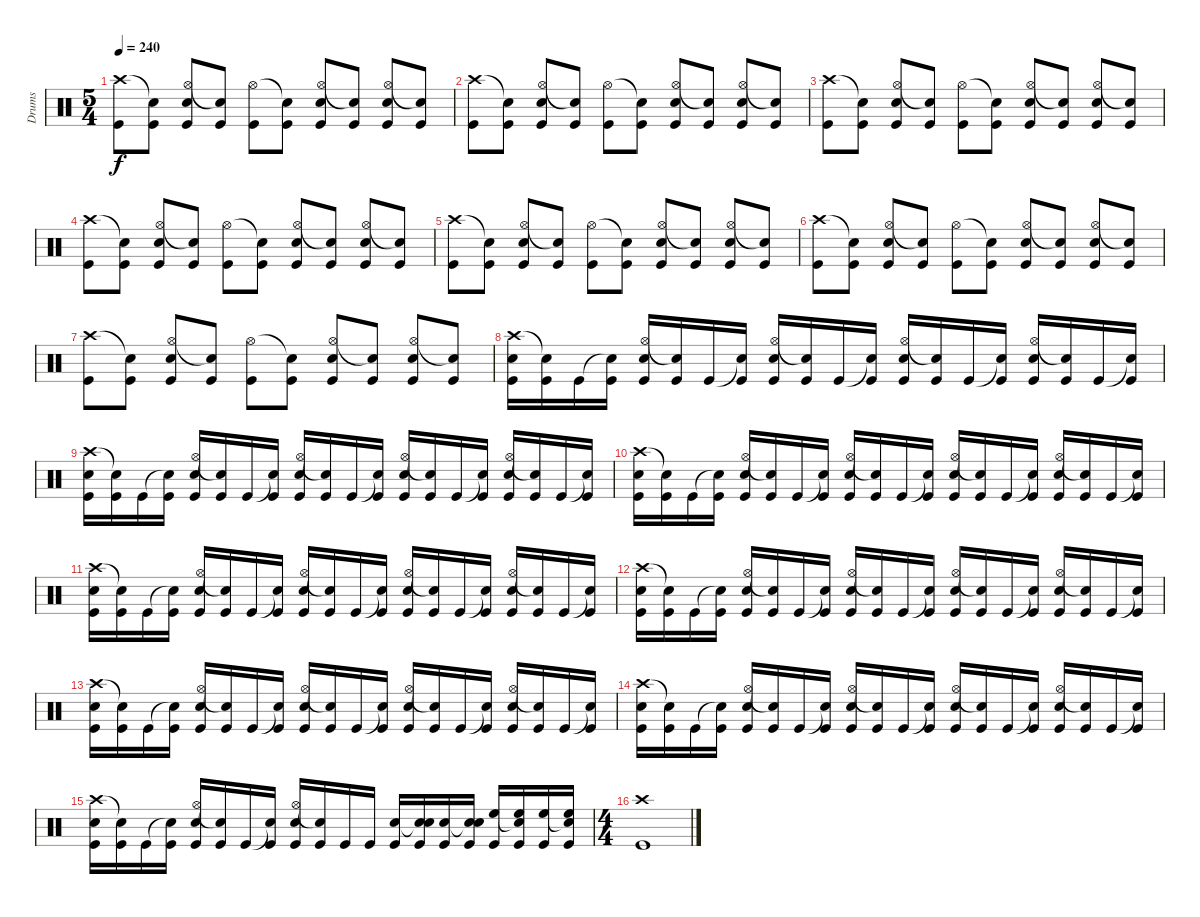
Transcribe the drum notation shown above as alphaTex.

\track ("Drums " "Drums ") {instrument percussion}
\staff {score}
\articulation defaults
\ts (5 4)
\tempo 240
\clef neutral
\ks c
("Crash high (hit)" "Kick (hit)").8{dy f} ("Snare (hit)"{t} "Kick (hit)").8 ("Hi-Hat (open)" "Electric Snare (hit)" "Kick (hit)").8 ("Snare (hit)"{t} "Kick (hit)").8 ("Hi-Hat (open)" "Kick (hit)").8 ("Snare (hit)"{t} "Kick (hit)").8 ("Hi-Hat (open)" "Electric Snare (hit)" "Kick (hit)").8 ("Snare (hit)"{t} "Kick (hit)").8 ("Hi-Hat (open)" "Electric Snare (hit)" "Kick (hit)").8 ("Snare (hit)"{t} "Kick (hit)").8 |
("Crash high (hit)" "Kick (hit)").8 ("Snare (hit)"{t} "Kick (hit)").8 ("Hi-Hat (open)" "Electric Snare (hit)" "Kick (hit)").8 ("Snare (hit)"{t} "Kick (hit)").8 ("Hi-Hat (open)" "Kick (hit)").8 ("Snare (hit)"{t} "Kick (hit)").8 ("Hi-Hat (open)" "Electric Snare (hit)" "Kick (hit)").8 ("Snare (hit)"{t} "Kick (hit)").8 ("Hi-Hat (open)" "Electric Snare (hit)" "Kick (hit)").8 ("Snare (hit)"{t} "Kick (hit)").8 |
("Crash high (hit)" "Kick (hit)").8 ("Snare (hit)"{t} "Kick (hit)").8 ("Hi-Hat (open)" "Electric Snare (hit)" "Kick (hit)").8 ("Snare (hit)"{t} "Kick (hit)").8 ("Hi-Hat (open)" "Kick (hit)").8 ("Snare (hit)"{t} "Kick (hit)").8 ("Hi-Hat (open)" "Electric Snare (hit)" "Kick (hit)").8 ("Snare (hit)"{t} "Kick (hit)").8 ("Hi-Hat (open)" "Electric Snare (hit)" "Kick (hit)").8 ("Snare (hit)"{t} "Kick (hit)").8 |
("Crash high (hit)" "Kick (hit)").8 ("Snare (hit)"{t} "Kick (hit)").8 ("Hi-Hat (open)" "Electric Snare (hit)" "Kick (hit)").8 ("Snare (hit)"{t} "Kick (hit)").8 ("Hi-Hat (open)" "Kick (hit)").8 ("Snare (hit)"{t} "Kick (hit)").8 ("Hi-Hat (open)" "Electric Snare (hit)" "Kick (hit)").8 ("Snare (hit)"{t} "Kick (hit)").8 ("Hi-Hat (open)" "Electric Snare (hit)" "Kick (hit)").8 ("Snare (hit)"{t} "Kick (hit)").8 |
("Crash high (hit)" "Kick (hit)").8 ("Snare (hit)"{t} "Kick (hit)").8 ("Hi-Hat (open)" "Electric Snare (hit)" "Kick (hit)").8 ("Snare (hit)"{t} "Kick (hit)").8 ("Hi-Hat (open)" "Kick (hit)").8 ("Snare (hit)"{t} "Kick (hit)").8 ("Hi-Hat (open)" "Electric Snare (hit)" "Kick (hit)").8 ("Snare (hit)"{t} "Kick (hit)").8 ("Hi-Hat (open)" "Electric Snare (hit)" "Kick (hit)").8 ("Snare (hit)"{t} "Kick (hit)").8 |
("Crash high (hit)" "Kick (hit)").8 ("Snare (hit)"{t} "Kick (hit)").8 ("Hi-Hat (open)" "Electric Snare (hit)" "Kick (hit)").8 ("Snare (hit)"{t} "Kick (hit)").8 ("Hi-Hat (open)" "Kick (hit)").8 ("Snare (hit)"{t} "Kick (hit)").8 ("Hi-Hat (open)" "Electric Snare (hit)" "Kick (hit)").8 ("Snare (hit)"{t} "Kick (hit)").8 ("Hi-Hat (open)" "Electric Snare (hit)" "Kick (hit)").8 ("Snare (hit)"{t} "Kick (hit)").8 |
("Crash high (hit)" "Kick (hit)").8 ("Snare (hit)"{t} "Kick (hit)").8 ("Hi-Hat (open)" "Electric Snare (hit)" "Kick (hit)").8 ("Snare (hit)"{t} "Kick (hit)").8 ("Hi-Hat (open)" "Kick (hit)").8 ("Snare (hit)"{t} "Kick (hit)").8 ("Hi-Hat (open)" "Electric Snare (hit)" "Kick (hit)").8 ("Snare (hit)"{t} "Kick (hit)").8 ("Hi-Hat (open)" "Electric Snare (hit)" "Kick (hit)").8 ("Snare (hit)"{t} "Kick (hit)").8 |
("Crash high (hit)" "Electric Snare (hit)" "Kick (hit)").16 ("Snare (hit)"{t} "Kick (hit)").16 "Kick (hit)".16 ("Snare (hit)"{t} "Kick (hit)").16 ("Hi-Hat (open)" "Electric Snare (hit)" "Kick (hit)").16 ("Snare (hit)"{t} "Kick (hit)").16 "Kick (hit)".16 ("Snare (hit)"{t} "Kick (hit)").16 ("Hi-Hat (open)" "Electric Snare (hit)" "Kick (hit)").16 ("Snare (hit)"{t} "Kick (hit)").16 "Kick (hit)".16 ("Snare (hit)"{t} "Kick (hit)").16 ("Hi-Hat (open)" "Electric Snare (hit)" "Kick (hit)").16 ("Snare (hit)"{t} "Kick (hit)").16 "Kick (hit)".16 ("Snare (hit)"{t} "Kick (hit)").16 ("Hi-Hat (open)" "Electric Snare (hit)" "Kick (hit)").16 ("Snare (hit)"{t} "Kick (hit)").16 "Kick (hit)".16 ("Snare (hit)"{t} "Kick (hit)").16 |
("Crash high (hit)" "Electric Snare (hit)" "Kick (hit)").16 ("Snare (hit)"{t} "Kick (hit)").16 "Kick (hit)".16 ("Snare (hit)"{t} "Kick (hit)").16 ("Hi-Hat (open)" "Electric Snare (hit)" "Kick (hit)").16 ("Snare (hit)"{t} "Kick (hit)").16 "Kick (hit)".16 ("Snare (hit)"{t} "Kick (hit)").16 ("Hi-Hat (open)" "Electric Snare (hit)" "Kick (hit)").16 ("Snare (hit)"{t} "Kick (hit)").16 "Kick (hit)".16 ("Snare (hit)"{t} "Kick (hit)").16 ("Hi-Hat (open)" "Electric Snare (hit)" "Kick (hit)").16 ("Snare (hit)"{t} "Kick (hit)").16 "Kick (hit)".16 ("Snare (hit)"{t} "Kick (hit)").16 ("Hi-Hat (open)" "Electric Snare (hit)" "Kick (hit)").16 ("Snare (hit)"{t} "Kick (hit)").16 "Kick (hit)".16 ("Snare (hit)"{t} "Kick (hit)").16 |
("Crash high (hit)" "Electric Snare (hit)" "Kick (hit)").16 ("Snare (hit)"{t} "Kick (hit)").16 "Kick (hit)".16 ("Snare (hit)"{t} "Kick (hit)").16 ("Hi-Hat (open)" "Electric Snare (hit)" "Kick (hit)").16 ("Snare (hit)"{t} "Kick (hit)").16 "Kick (hit)".16 ("Snare (hit)"{t} "Kick (hit)").16 ("Hi-Hat (open)" "Electric Snare (hit)" "Kick (hit)").16 ("Snare (hit)"{t} "Kick (hit)").16 "Kick (hit)".16 ("Snare (hit)"{t} "Kick (hit)").16 ("Hi-Hat (open)" "Electric Snare (hit)" "Kick (hit)").16 ("Snare (hit)"{t} "Kick (hit)").16 "Kick (hit)".16 ("Snare (hit)"{t} "Kick (hit)").16 ("Hi-Hat (open)" "Electric Snare (hit)" "Kick (hit)").16 ("Snare (hit)"{t} "Kick (hit)").16 "Kick (hit)".16 ("Snare (hit)"{t} "Kick (hit)").16 |
("Crash high (hit)" "Electric Snare (hit)" "Kick (hit)").16 ("Snare (hit)"{t} "Kick (hit)").16 "Kick (hit)".16 ("Snare (hit)"{t} "Kick (hit)").16 ("Hi-Hat (open)" "Electric Snare (hit)" "Kick (hit)").16 ("Snare (hit)"{t} "Kick (hit)").16 "Kick (hit)".16 ("Snare (hit)"{t} "Kick (hit)").16 ("Hi-Hat (open)" "Electric Snare (hit)" "Kick (hit)").16 ("Snare (hit)"{t} "Kick (hit)").16 "Kick (hit)".16 ("Snare (hit)"{t} "Kick (hit)").16 ("Hi-Hat (open)" "Electric Snare (hit)" "Kick (hit)").16 ("Snare (hit)"{t} "Kick (hit)").16 "Kick (hit)".16 ("Snare (hit)"{t} "Kick (hit)").16 ("Hi-Hat (open)" "Electric Snare (hit)" "Kick (hit)").16 ("Snare (hit)"{t} "Kick (hit)").16 "Kick (hit)".16 ("Snare (hit)"{t} "Kick (hit)").16 |
("Crash high (hit)" "Electric Snare (hit)" "Kick (hit)").16 ("Snare (hit)"{t} "Kick (hit)").16 "Kick (hit)".16 ("Snare (hit)"{t} "Kick (hit)").16 ("Hi-Hat (open)" "Electric Snare (hit)" "Kick (hit)").16 ("Snare (hit)"{t} "Kick (hit)").16 "Kick (hit)".16 ("Snare (hit)"{t} "Kick (hit)").16 ("Hi-Hat (open)" "Electric Snare (hit)" "Kick (hit)").16 ("Snare (hit)"{t} "Kick (hit)").16 "Kick (hit)".16 ("Snare (hit)"{t} "Kick (hit)").16 ("Hi-Hat (open)" "Electric Snare (hit)" "Kick (hit)").16 ("Snare (hit)"{t} "Kick (hit)").16 "Kick (hit)".16 ("Snare (hit)"{t} "Kick (hit)").16 ("Hi-Hat (open)" "Electric Snare (hit)" "Kick (hit)").16 ("Snare (hit)"{t} "Kick (hit)").16 "Kick (hit)".16 ("Snare (hit)"{t} "Kick (hit)").16 |
("Crash high (hit)" "Electric Snare (hit)" "Kick (hit)").16 ("Snare (hit)"{t} "Kick (hit)").16 "Kick (hit)".16 ("Snare (hit)"{t} "Kick (hit)").16 ("Hi-Hat (open)" "Electric Snare (hit)" "Kick (hit)").16 ("Snare (hit)"{t} "Kick (hit)").16 "Kick (hit)".16 ("Snare (hit)"{t} "Kick (hit)").16 ("Hi-Hat (open)" "Electric Snare (hit)" "Kick (hit)").16 ("Snare (hit)"{t} "Kick (hit)").16 "Kick (hit)".16 ("Snare (hit)"{t} "Kick (hit)").16 ("Hi-Hat (open)" "Electric Snare (hit)" "Kick (hit)").16 ("Snare (hit)"{t} "Kick (hit)").16 "Kick (hit)".16 ("Snare (hit)"{t} "Kick (hit)").16 ("Hi-Hat (open)" "Electric Snare (hit)" "Kick (hit)").16 ("Snare (hit)"{t} "Kick (hit)").16 "Kick (hit)".16 ("Snare (hit)"{t} "Kick (hit)").16 |
("Crash high (hit)" "Electric Snare (hit)" "Kick (hit)").16 ("Snare (hit)"{t} "Kick (hit)").16 "Kick (hit)".16 ("Snare (hit)"{t} "Kick (hit)").16 ("Hi-Hat (open)" "Electric Snare (hit)" "Kick (hit)").16 ("Snare (hit)"{t} "Kick (hit)").16 "Kick (hit)".16 ("Snare (hit)"{t} "Kick (hit)").16 ("Hi-Hat (open)" "Electric Snare (hit)" "Kick (hit)").16 ("Snare (hit)"{t} "Kick (hit)").16 "Kick (hit)".16 ("Snare (hit)"{t} "Kick (hit)").16 ("Hi-Hat (open)" "Electric Snare (hit)" "Kick (hit)").16 ("Snare (hit)"{t} "Kick (hit)").16 "Kick (hit)".16 ("Snare (hit)"{t} "Kick (hit)").16 ("Hi-Hat (open)" "Electric Snare (hit)" "Kick (hit)").16 ("Snare (hit)"{t} "Kick (hit)").16 "Kick (hit)".16 ("Snare (hit)"{t} "Kick (hit)").16 |
("Crash high (hit)" "Electric Snare (hit)" "Kick (hit)").16 ("Snare (hit)"{t} "Kick (hit)").16 "Kick (hit)".16 ("Snare (hit)"{t} "Kick (hit)").16 ("Hi-Hat (open)" "Electric Snare (hit)" "Kick (hit)").16 ("Snare (hit)"{t} "Kick (hit)").16 "Kick (hit)".16 ("Snare (hit)"{t} "Kick (hit)").16 ("Hi-Hat (open)" "Electric Snare (hit)" "Kick (hit)").16 ("Snare (hit)"{t} "Kick (hit)").16 "Kick (hit)".16 "Kick (hit)".16 ("Electric Snare (hit)" "Kick (hit)").16 ("Snare (hit)"{t} "Electric Snare (hit)" "Kick (hit)").16 ("Electric Snare (hit)" "Kick (hit)").16 ("Snare (hit)"{t} "Electric Snare (hit)" "Kick (hit)").16 ("High Floor Tom (hit)" "Kick (hit)").16 ("Snare (hit)"{t} "High Floor Tom (hit)" "Kick (hit)").16 ("High Floor Tom (hit)" "Kick (hit)").16 ("Snare (hit)"{t} "High Floor Tom (hit)" "Kick (hit)").16 |
\ts (4 4)
("Crash high (hit)" "Kick (hit)").1
